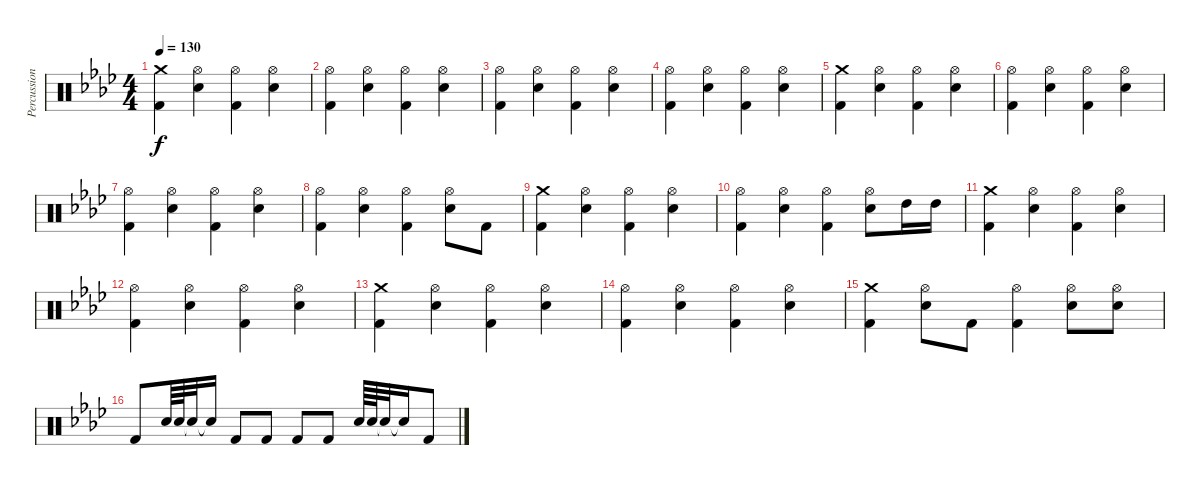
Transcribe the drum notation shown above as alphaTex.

\track ("Percussions" "Percussion") {instrument percussion}
\staff {score}
\articulation defaults
\ts (4 4)
\tempo 130
\clef neutral
\ks ab
("Crash medium (hit)" "Kick (hit) 2").4{dy f} ("Hi-Hat (open)" "Electric Snare (hit)").4 ("Hi-Hat (open)" "Kick (hit) 2").4 ("Hi-Hat (open)" "Electric Snare (hit)").4 |
("Hi-Hat (open)" "Kick (hit) 2").4 ("Hi-Hat (open)" "Electric Snare (hit)").4 ("Hi-Hat (open)" "Kick (hit) 2").4 ("Hi-Hat (open)" "Electric Snare (hit)").4 |
("Hi-Hat (open)" "Kick (hit) 2").4 ("Hi-Hat (open)" "Electric Snare (hit)").4 ("Hi-Hat (open)" "Kick (hit) 2").4 ("Hi-Hat (open)" "Electric Snare (hit)").4 |
("Hi-Hat (open)" "Kick (hit) 2").4 ("Hi-Hat (open)" "Electric Snare (hit)").4 ("Hi-Hat (open)" "Kick (hit) 2").4 ("Hi-Hat (open)" "Electric Snare (hit)").4 |
("Crash medium (hit)" "Kick (hit) 2").4 ("Hi-Hat (open)" "Electric Snare (hit)").4 ("Hi-Hat (open)" "Kick (hit) 2").4 ("Hi-Hat (open)" "Electric Snare (hit)").4 |
("Hi-Hat (open)" "Kick (hit) 2").4 ("Hi-Hat (open)" "Electric Snare (hit)").4 ("Hi-Hat (open)" "Kick (hit) 2").4 ("Hi-Hat (open)" "Electric Snare (hit)").4 |
("Hi-Hat (open)" "Kick (hit) 2").4 ("Hi-Hat (open)" "Electric Snare (hit)").4 ("Hi-Hat (open)" "Kick (hit) 2").4 ("Hi-Hat (open)" "Electric Snare (hit)").4 |
("Hi-Hat (open)" "Kick (hit) 2").4 ("Hi-Hat (open)" "Electric Snare (hit)").4 ("Hi-Hat (open)" "Kick (hit) 2").4 ("Hi-Hat (open)" "Electric Snare (hit)").8 "Kick (hit) 2".8 |
("Crash medium (hit)" "Kick (hit) 2").4 ("Hi-Hat (open)" "Electric Snare (hit)").4 ("Hi-Hat (open)" "Kick (hit) 2").4 ("Hi-Hat (open)" "Electric Snare (hit)").4 |
("Hi-Hat (open)" "Kick (hit) 2").4 ("Hi-Hat (open)" "Electric Snare (hit)").4 ("Hi-Hat (open)" "Kick (hit) 2").4 ("Hi-Hat (open)" "Electric Snare (hit)").8 "High Tom (hit)".16 "High Tom (hit)".16 |
("Crash medium (hit)" "Kick (hit) 2").4 ("Hi-Hat (open)" "Electric Snare (hit)").4 ("Hi-Hat (open)" "Kick (hit) 2").4 ("Hi-Hat (open)" "Electric Snare (hit)").4 |
("Hi-Hat (open)" "Kick (hit) 2").4 ("Hi-Hat (open)" "Electric Snare (hit)").4 ("Hi-Hat (open)" "Kick (hit) 2").4 ("Hi-Hat (open)" "Electric Snare (hit)").4 |
("Crash medium (hit)" "Kick (hit) 2").4 ("Hi-Hat (open)" "Electric Snare (hit)").4 ("Hi-Hat (open)" "Kick (hit) 2").4 ("Hi-Hat (open)" "Electric Snare (hit)").4 |
("Hi-Hat (open)" "Kick (hit) 2").4 ("Hi-Hat (open)" "Electric Snare (hit)").4 ("Hi-Hat (open)" "Kick (hit) 2").4 ("Hi-Hat (open)" "Electric Snare (hit)").4 |
("Crash medium (hit)" "Kick (hit) 2").4 ("Hi-Hat (open)" "Electric Snare (hit)").8 "Kick (hit) 2".8 ("Hi-Hat (open)" "Kick (hit) 2").4 ("Hi-Hat (open)" "Electric Snare (hit)").8 ("Hi-Hat (open)" "Electric Snare (hit)").8 |
"Kick (hit) 2".8 "Electric Snare (hit)".64 "Electric Snare (hit)".64 "Snare (hit)"{t}.32 "Snare (hit)"{t}.16 "Kick (hit) 2".8 "Kick (hit) 2".8 "Kick (hit) 2".8 "Kick (hit) 2".8 "Electric Snare (hit)".64 "Electric Snare (hit)".64 "Snare (hit)"{t}.32 "Snare (hit)"{t}.16 "Kick (hit) 2".8
